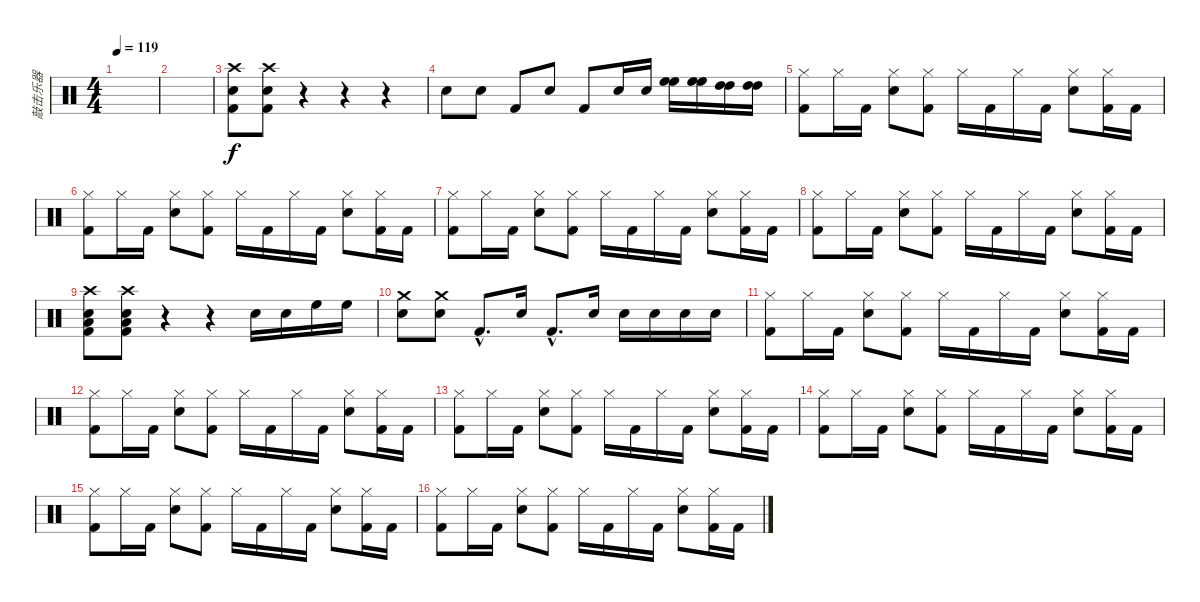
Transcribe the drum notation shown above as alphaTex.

\track ("敲击乐器" "敲击乐器") {instrument percussion}
\staff {score}
\articulation defaults
\ts (4 4)
\tempo 119
\clef neutral
\ks c
|
|
("Crash high (hit)" "Snare (hit) 2" "Kick (hit) 2").8 ("Crash high (hit)" "Snare (hit) 2" "Kick (hit) 2").8 r.4 r.4 r.4 |
"Snare (hit) 2".8 "Snare (hit) 2".8 "Kick (hit) 2".8 "Snare (hit) 2".8 "Kick (hit) 2".8 "Snare (hit) 2".16 "Snare (hit) 2".16 ("High Floor Tom (hit)" "High Floor Tom (hit)").16 ("High Floor Tom (hit)" "High Floor Tom (hit)").16 ("High Tom (hit)" "High Tom (hit)").16 ("High Tom (hit)" "High Tom (hit)").16 |
("Hi-Hat (closed)" "Kick (hit) 2").8 "Hi-Hat (closed)".16 "Kick (hit) 2".16 ("Hi-Hat (closed)" "Snare (hit) 2").8 ("Hi-Hat (closed)" "Kick (hit) 2").8 "Hi-Hat (closed)".16 "Kick (hit) 2".16 "Hi-Hat (closed)".16 "Kick (hit) 2".16 ("Hi-Hat (closed)" "Snare (hit) 2").8 ("Hi-Hat (closed)" "Kick (hit) 2").16 "Kick (hit) 2".16 |
("Hi-Hat (closed)" "Kick (hit) 2").8 "Hi-Hat (closed)".16 "Kick (hit) 2".16 ("Hi-Hat (closed)" "Snare (hit) 2").8 ("Hi-Hat (closed)" "Kick (hit) 2").8 "Hi-Hat (closed)".16 "Kick (hit) 2".16 "Hi-Hat (closed)".16 "Kick (hit) 2".16 ("Hi-Hat (closed)" "Snare (hit) 2").8 ("Hi-Hat (closed)" "Kick (hit) 2").16 "Kick (hit) 2".16 |
("Hi-Hat (closed)" "Kick (hit) 2").8 "Hi-Hat (closed)".16 "Kick (hit) 2".16 ("Hi-Hat (closed)" "Snare (hit) 2").8 ("Hi-Hat (closed)" "Kick (hit) 2").8 "Hi-Hat (closed)".16 "Kick (hit) 2".16 "Hi-Hat (closed)".16 "Kick (hit) 2".16 ("Hi-Hat (closed)" "Snare (hit) 2").8 ("Hi-Hat (closed)" "Kick (hit) 2").16 "Kick (hit) 2".16 |
("Hi-Hat (closed)" "Kick (hit) 2").8 "Hi-Hat (closed)".16 "Kick (hit) 2".16 ("Hi-Hat (closed)" "Snare (hit) 2").8 ("Hi-Hat (closed)" "Kick (hit) 2").8 "Hi-Hat (closed)".16 "Kick (hit) 2".16 "Hi-Hat (closed)".16 "Kick (hit) 2".16 ("Hi-Hat (closed)" "Snare (hit) 2").8 ("Hi-Hat (closed)" "Kick (hit) 2").16 "Kick (hit) 2".16 |
("Crash high (hit)" "Low Floor Tom (hit)" "Snare (hit) 2" "Kick (hit) 2").8 ("Crash high (hit)" "Low Floor Tom (hit)" "Snare (hit) 2" "Kick (hit) 2").8 r.4 r.4 "Snare (hit) 2".16 "Snare (hit) 2".16 "High Floor Tom (hit)".16 "High Floor Tom (hit)".16 |
("Crash medium (hit)" "Snare (hit) 2").8 ("Crash medium (hit)" "Snare (hit) 2").8 "Kick (hit) 2"{hac}.8{d} "Snare (hit) 2".16 "Kick (hit) 2"{hac}.8{d} "Snare (hit) 2".16 "Snare (hit) 2".16 "Snare (hit) 2".16 "Snare (hit) 2".16 "Snare (hit) 2".16 |
("Hi-Hat (closed)" "Kick (hit) 2").8 "Hi-Hat (closed)".16 "Kick (hit) 2".16 ("Hi-Hat (closed)" "Snare (hit) 2").8 ("Hi-Hat (closed)" "Kick (hit) 2").8 "Hi-Hat (closed)".16 "Kick (hit) 2".16 "Hi-Hat (closed)".16 "Kick (hit) 2".16 ("Hi-Hat (closed)" "Snare (hit) 2").8 ("Hi-Hat (closed)" "Kick (hit) 2").16 "Kick (hit) 2".16 |
("Hi-Hat (closed)" "Kick (hit) 2").8 "Hi-Hat (closed)".16 "Kick (hit) 2".16 ("Hi-Hat (closed)" "Snare (hit) 2").8 ("Hi-Hat (closed)" "Kick (hit) 2").8 "Hi-Hat (closed)".16 "Kick (hit) 2".16 "Hi-Hat (closed)".16 "Kick (hit) 2".16 ("Hi-Hat (closed)" "Snare (hit) 2").8 ("Hi-Hat (closed)" "Kick (hit) 2").16 "Kick (hit) 2".16 |
("Hi-Hat (closed)" "Kick (hit) 2").8 "Hi-Hat (closed)".16 "Kick (hit) 2".16 ("Hi-Hat (closed)" "Snare (hit) 2").8 ("Hi-Hat (closed)" "Kick (hit) 2").8 "Hi-Hat (closed)".16 "Kick (hit) 2".16 "Hi-Hat (closed)".16 "Kick (hit) 2".16 ("Hi-Hat (closed)" "Snare (hit) 2").8 ("Hi-Hat (closed)" "Kick (hit) 2").16 "Kick (hit) 2".16 |
("Hi-Hat (closed)" "Kick (hit) 2").8 "Hi-Hat (closed)".16 "Kick (hit) 2".16 ("Hi-Hat (closed)" "Snare (hit) 2").8 ("Hi-Hat (closed)" "Kick (hit) 2").8 "Hi-Hat (closed)".16 "Kick (hit) 2".16 "Hi-Hat (closed)".16 "Kick (hit) 2".16 ("Hi-Hat (closed)" "Snare (hit) 2").8 ("Hi-Hat (closed)" "Kick (hit) 2").16 "Kick (hit) 2".16 |
("Hi-Hat (closed)" "Kick (hit) 2").8 "Hi-Hat (closed)".16 "Kick (hit) 2".16 ("Hi-Hat (closed)" "Snare (hit) 2").8 ("Hi-Hat (closed)" "Kick (hit) 2").8 "Hi-Hat (closed)".16 "Kick (hit) 2".16 "Hi-Hat (closed)".16 "Kick (hit) 2".16 ("Hi-Hat (closed)" "Snare (hit) 2").8 ("Hi-Hat (closed)" "Kick (hit) 2").16 "Kick (hit) 2".16 |
("Hi-Hat (closed)" "Kick (hit) 2").8 "Hi-Hat (closed)".16 "Kick (hit) 2".16 ("Hi-Hat (closed)" "Snare (hit) 2").8 ("Hi-Hat (closed)" "Kick (hit) 2").8 "Hi-Hat (closed)".16 "Kick (hit) 2".16 "Hi-Hat (closed)".16 "Kick (hit) 2".16 ("Hi-Hat (closed)" "Snare (hit) 2").8 ("Hi-Hat (closed)" "Kick (hit) 2").16 "Kick (hit) 2".16
